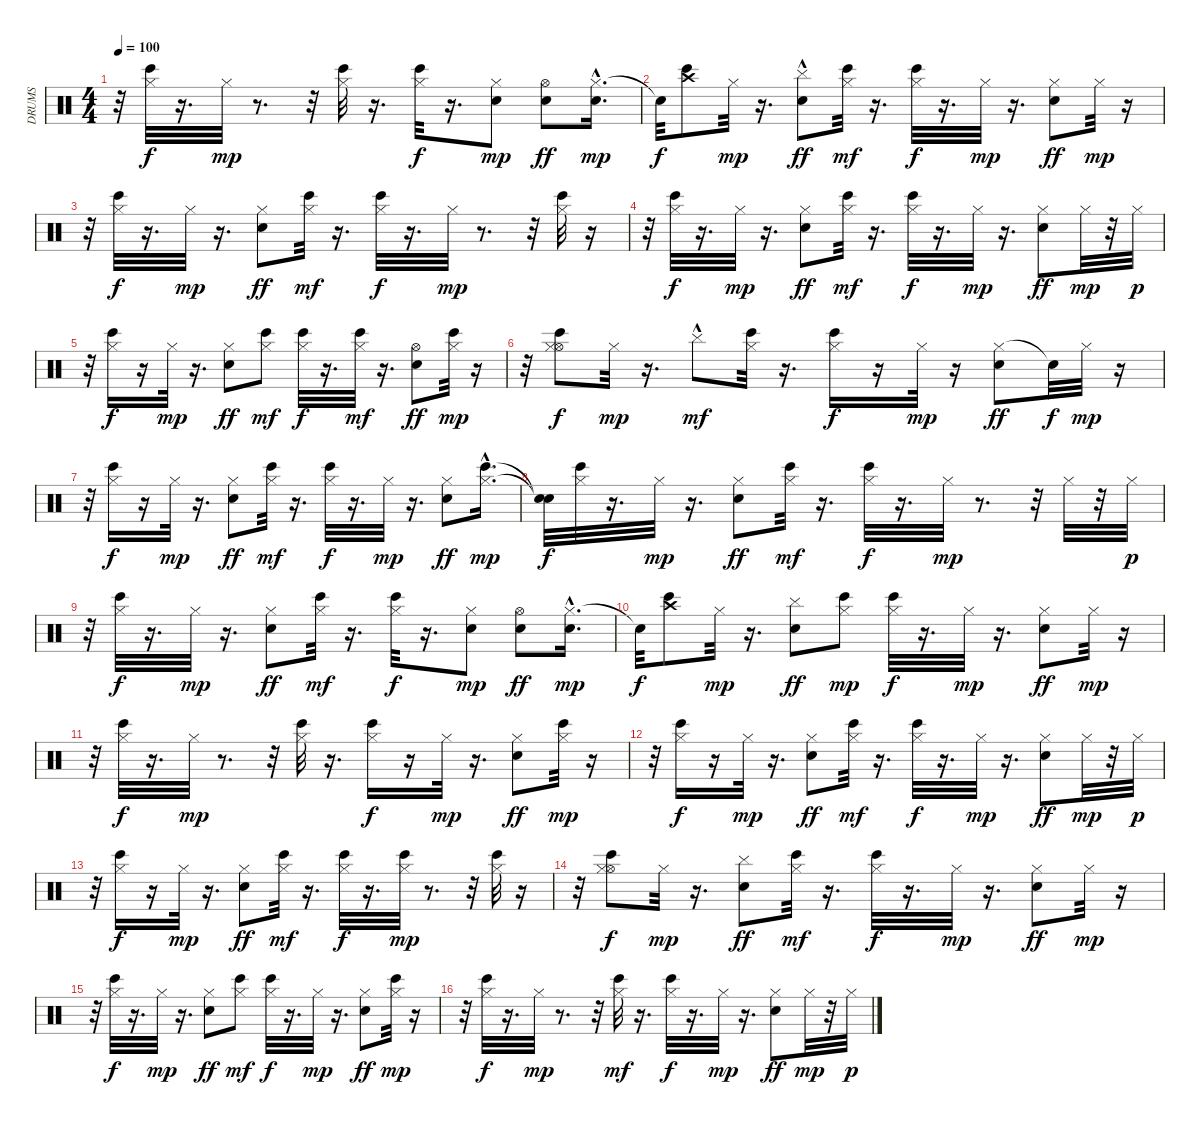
\track ("DRUMS" "DRUMS") {instrument percussion}
\staff {score}
\articulation defaults
\ts (4 4)
\tempo 100
\clef neutral
\ks c
r.32{dy p} ("Bongo High (hit)" "Hi-Hat (closed)").32{dy f} r.16{d} "Hi-Hat (closed)".32{dy mp} r.8{d} r.32 ("Bongo High (hit)" "Hi-Hat (closed)").32 r.16{d} ("Hi-Hat (closed)" "Bongo High (hit)").32{dy f} r.16{d} ("Hi-Hat (closed)" "Electric Snare (hit)").8{dy mp} ("Hi-Hat (open)" "Electric Snare (hit)").8{dy ff} ("Hi-Hat (closed)" "Electric Snare (hit)"{hac}).16{d dy mp} |
"Snare (hit)"{t}.32{dy f} ("Bongo High (hit)" "Crash high (hit)").8 "Hi-Hat (closed)".32{dy mp} r.16{d} ("Cymbal (hit)"{hac} "Electric Snare (hit)").8{dy ff} ("Hi-Hat (closed)" "Bongo High (hit)").32{dy mf} r.16{d} ("Hi-Hat (closed)" "Bongo High (hit)").32{dy f} r.16{d} "Hi-Hat (closed)".32{dy mp} r.16{d} ("Hi-Hat (closed)" "Electric Snare (hit)").8{dy ff} "Hi-Hat (closed)".32{dy mp} r.16 |
r.32 ("Hi-Hat (closed)" "Bongo High (hit)").32{dy f} r.16{d} "Hi-Hat (closed)".32{dy mp} r.16{d} ("Hi-Hat (closed)" "Electric Snare (hit)").8{dy ff} ("Hi-Hat (closed)" "Bongo High (hit)").32{dy mf} r.16{d} ("Hi-Hat (closed)" "Bongo High (hit)").32{dy f} r.16{d} "Hi-Hat (closed)".32{dy mp} r.8{d} r.32 ("Hi-Hat (closed)" "Bongo High (hit)").32 r.16 |
r.32 ("Bongo High (hit)" "Hi-Hat (closed)").32{dy f} r.16{d} "Hi-Hat (closed)".32{dy mp} r.16{d} ("Hi-Hat (closed)" "Electric Snare (hit)").8{dy ff} ("Hi-Hat (closed)" "Bongo High (hit)").32{dy mf} r.16{d} ("Hi-Hat (closed)" "Bongo High (hit)").32{dy f} r.16{d} "Hi-Hat (closed)".32{dy mp} r.16{d} ("Hi-Hat (closed)" "Electric Snare (hit)").8{dy ff} "Hi-Hat (closed)".32{dy mp} r.32 "Hi-Hat (closed)".32{dy p} |
r.32 ("Hi-Hat (closed)" "Bongo High (hit)").16{dy f} r.16 "Hi-Hat (closed)".32{dy mp} r.16{d} ("Hi-Hat (closed)" "Electric Snare (hit)").8{dy ff} ("Hi-Hat (closed)" "Bongo High (hit)").8{dy mf} ("Hi-Hat (closed)" "Bongo High (hit)").32{dy f} r.16{d} ("Hi-Hat (closed)" "Bongo High (hit)").32{dy mf} r.16{d} ("Electric Snare (hit)" "Hi-Hat (open)").8{dy ff} ("Hi-Hat (closed)" "Bongo High (hit)").32{dy mp} r.16 |
r.32 ("Bongo High (hit)" "Hi-Hat (open)" "Hi-Hat (closed)").8{dy f} "Hi-Hat (closed)".32{dy mp} r.16{d} "Cymbal (hit)"{hac}.8{dy mf} ("Hi-Hat (closed)" "Bongo High (hit)").32 r.16{d} ("Hi-Hat (closed)" "Bongo High (hit)").16{dy f} r.16 "Hi-Hat (closed)".32{dy mp} r.16 ("Hi-Hat (closed)" "Electric Snare (hit)").8{dy ff} "Snare (hit)"{t}.32{dy f} "Hi-Hat (closed)".32{dy mp} r.16 |
r.32 ("Hi-Hat (closed)" "Bongo High (hit)").16{dy f} r.16 "Hi-Hat (closed)".32{dy mp} r.16{d} ("Hi-Hat (closed)" "Electric Snare (hit)").8{dy ff} ("Hi-Hat (closed)" "Bongo High (hit)").32{dy mf} r.16{d} ("Hi-Hat (closed)" "Bongo High (hit)").32{dy f} r.16{d} "Hi-Hat (closed)".32{dy mp} r.16{d} ("Hi-Hat (closed)" "Electric Snare (hit)").8{dy ff} ("Hi-Hat (closed)"{hac} "Bongo High (hit)"{hac}).16{d dy mp} |
("Snare (hit)"{t} "Snare (hit)"{t}).32{dy f} ("Hi-Hat (closed)" "Bongo High (hit)").32 r.16{d} "Hi-Hat (closed)".32{dy mp} r.16{d} ("Electric Snare (hit)" "Hi-Hat (closed)").8{dy ff} ("Hi-Hat (closed)" "Bongo High (hit)").32{dy mf} r.16{d} ("Hi-Hat (closed)" "Bongo High (hit)").32{dy f} r.16{d} "Hi-Hat (closed)".32{dy mp} r.8{d} r.32 "Hi-Hat (closed)".32 r.32 "Hi-Hat (closed)".32{dy p} |
r.32 ("Hi-Hat (closed)" "Bongo High (hit)").32{dy f} r.16{d} "Hi-Hat (closed)".32{dy mp} r.16{d} ("Hi-Hat (closed)" "Electric Snare (hit)").8{dy ff} ("Hi-Hat (closed)" "Bongo High (hit)").32{dy mf} r.16{d} ("Hi-Hat (closed)" "Bongo High (hit)").32{dy f} r.16{d} ("Hi-Hat (closed)" "Electric Snare (hit)").8{dy mp} ("Electric Snare (hit)" "Hi-Hat (open)").8{dy ff} ("Hi-Hat (closed)" "Electric Snare (hit)"{hac}).16{d dy mp} |
"Snare (hit)"{t}.32{dy f} ("Crash high (hit)" "Bongo High (hit)").8 "Hi-Hat (closed)".32{dy mp} r.16{d} ("Cymbal (hit)" "Electric Snare (hit)").8{dy ff} ("Bongo High (hit)" "Hi-Hat (closed)").8{dy mp} ("Hi-Hat (closed)" "Bongo High (hit)").32{dy f} r.16{d} "Hi-Hat (closed)".32{dy mp} r.16{d} ("Hi-Hat (closed)" "Electric Snare (hit)").8{dy ff} "Hi-Hat (closed)".32{dy mp} r.16 |
r.32 ("Bongo High (hit)" "Hi-Hat (closed)").32{dy f} r.16{d} "Hi-Hat (closed)".32{dy mp} r.8{d} r.32 ("Bongo High (hit)" "Hi-Hat (closed)").32 r.16{d} ("Hi-Hat (closed)" "Bongo High (hit)").16{dy f} r.16 "Hi-Hat (closed)".32{dy mp} r.16{d} ("Hi-Hat (closed)" "Electric Snare (hit)").8{dy ff} ("Hi-Hat (closed)" "Bongo High (hit)").32{dy mp} r.16 |
r.32 ("Hi-Hat (closed)" "Bongo High (hit)").16{dy f} r.16 "Hi-Hat (closed)".32{dy mp} r.16{d} ("Hi-Hat (closed)" "Electric Snare (hit)").8{dy ff} ("Hi-Hat (closed)" "Bongo High (hit)").32{dy mf} r.16{d} ("Hi-Hat (closed)" "Bongo High (hit)").32{dy f} r.16{d} "Hi-Hat (closed)".32{dy mp} r.16{d} ("Hi-Hat (closed)" "Electric Snare (hit)").8{dy ff} "Hi-Hat (closed)".32{dy mp} r.32 "Hi-Hat (closed)".32{dy p} |
r.32 ("Hi-Hat (closed)" "Bongo High (hit)").16{dy f} r.16 "Hi-Hat (closed)".32{dy mp} r.16{d} ("Hi-Hat (closed)" "Electric Snare (hit)").8{dy ff} ("Hi-Hat (closed)" "Bongo High (hit)").32{dy mf} r.16{d} ("Hi-Hat (closed)" "Bongo High (hit)").32{dy f} r.16{d} ("Bongo High (hit)" "Hi-Hat (closed)").32{dy mp} r.8{d} r.32 ("Hi-Hat (closed)" "Bongo High (hit)").32 r.16 |
r.32 ("Hi-Hat (open)" "Bongo High (hit)" "Hi-Hat (closed)").8{dy f} "Hi-Hat (closed)".32{dy mp} r.16{d} ("Cymbal (hit)" "Electric Snare (hit)").8{dy ff} ("Hi-Hat (closed)" "Bongo High (hit)").32{dy mf} r.16{d} ("Hi-Hat (closed)" "Bongo High (hit)").32{dy f} r.16{d} "Hi-Hat (closed)".32{dy mp} r.16{d} ("Electric Snare (hit)" "Hi-Hat (closed)").8{dy ff} "Hi-Hat (closed)".32{dy mp} r.16 |
r.32 ("Hi-Hat (closed)" "Bongo High (hit)").32{dy f} r.16{d} "Hi-Hat (closed)".32{dy mp} r.16{d} ("Hi-Hat (closed)" "Electric Snare (hit)").8{dy ff} ("Hi-Hat (closed)" "Bongo High (hit)").8{dy mf} ("Bongo High (hit)" "Hi-Hat (closed)").32{dy f} r.16{d} "Hi-Hat (closed)".32{dy mp} r.16{d} ("Hi-Hat (closed)" "Electric Snare (hit)").8{dy ff} ("Hi-Hat (closed)" "Bongo High (hit)").32{dy mp} r.16 |
r.32 ("Hi-Hat (closed)" "Bongo High (hit)").32{dy f} r.16{d} "Hi-Hat (closed)".32{dy mp} r.8{d} r.32 ("Hi-Hat (closed)" "Bongo High (hit)").32{dy mf} r.16{d} ("Hi-Hat (closed)" "Bongo High (hit)").32{dy f} r.16{d} "Hi-Hat (closed)".32{dy mp} r.16{d} ("Hi-Hat (closed)" "Electric Snare (hit)").8{dy ff} "Hi-Hat (closed)".32{dy mp} r.32 "Hi-Hat (closed)".32{dy p}
